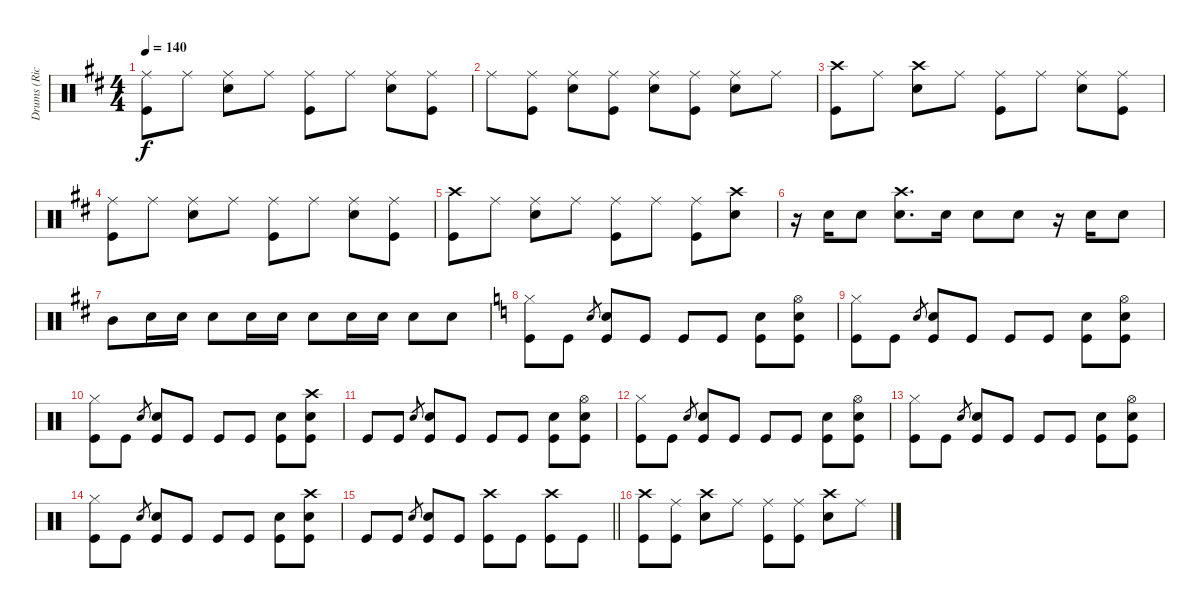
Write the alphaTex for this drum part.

\track ("Drums (Rick)" "Drums (Ric") {instrument percussion}
\staff {score}
\articulation defaults
\ts (4 4)
\tempo 140
\clef neutral
\ks bminor
("Ride (middle)" "Kick (hit)").8{dy f} "Ride (middle)".8 ("Ride (middle)" "Snare (hit) 2").8 "Ride (middle)".8 ("Ride (middle)" "Kick (hit)").8 "Ride (middle)".8 ("Ride (middle)" "Snare (hit) 2").8 ("Ride (middle)" "Kick (hit)").8 |
"Ride (middle)".8 ("Ride (middle)" "Kick (hit)").8 ("Ride (middle)" "Snare (hit) 2").8 ("Ride (middle)" "Kick (hit)").8 ("Ride (middle)" "Snare (hit) 2").8 ("Ride (middle)" "Kick (hit)").8 ("Ride (middle)" "Snare (hit) 2").8 "Ride (middle)".8 |
("Crash high (hit)" "Kick (hit)").8 "Ride (middle)".8 ("Crash high (hit)" "Snare (hit) 2").8 "Ride (middle)".8 ("Ride (middle)" "Kick (hit)").8 "Ride (middle)".8 ("Ride (middle)" "Snare (hit) 2").8 ("Ride (middle)" "Kick (hit)").8 |
("Ride (middle)" "Kick (hit)").8 "Ride (middle)".8 ("Ride (middle)" "Snare (hit) 2").8 "Ride (middle)".8 ("Ride (middle)" "Kick (hit)").8 "Ride (middle)".8 ("Ride (middle)" "Snare (hit) 2").8 ("Ride (middle)" "Kick (hit)").8 |
("Crash high (hit)" "Kick (hit)").8 "Ride (middle)".8 ("Ride (middle)" "Snare (hit) 2").8 "Ride (middle)".8 ("Ride (middle)" "Kick (hit)").8 "Ride (middle)".8 ("Ride (middle)" "Kick (hit)").8 ("Crash high (hit)" "Snare (hit) 2").8 |
r.16 "Snare (hit) 2".16 "Snare (hit) 2".8 ("Crash high (hit)" "Snare (hit) 2").8{d} "Snare (hit) 2".16 "Snare (hit) 2".8 "Snare (hit) 2".8 r.16 "Snare (hit) 2".16 "Snare (hit) 2".8 |
"Mid Tom (hit)".8 "Snare (hit) 2".16 "Snare (hit) 2".16 "Snare (hit) 2".8 "Snare (hit) 2".16 "Snare (hit) 2".16 "Snare (hit) 2".8 "Snare (hit) 2".16 "Snare (hit) 2".16 "Snare (hit) 2".8 "Snare (hit) 2".8 |
\ks aminor
("Hi-Hat (closed)" "Kick (hit)").8 "Kick (hit)".8 "Snare (hit) 2".8{gr} ("Snare (hit) 2" "Kick (hit)").8 "Kick (hit)".8 "Kick (hit)".8 "Kick (hit)".8 ("Snare (hit) 2" "Kick (hit)").8 ("Hi-Hat (open)" "Snare (hit) 2" "Kick (hit)").8 |
("Hi-Hat (closed)" "Kick (hit)").8 "Kick (hit)".8 "Snare (hit) 2".8{gr} ("Snare (hit) 2" "Kick (hit)").8 "Kick (hit)".8 "Kick (hit)".8 "Kick (hit)".8 ("Snare (hit) 2" "Kick (hit)").8 ("Hi-Hat (open)" "Snare (hit) 2" "Kick (hit)").8 |
("Hi-Hat (closed)" "Kick (hit)").8 "Kick (hit)".8 "Snare (hit) 2".8{gr} ("Snare (hit) 2" "Kick (hit)").8 "Kick (hit)".8 "Kick (hit)".8 "Kick (hit)".8 ("Snare (hit) 2" "Kick (hit)").8 ("Crash high (hit)" "Snare (hit) 2" "Kick (hit)").8 |
"Kick (hit)".8 "Kick (hit)".8 "Snare (hit) 2".8{gr} ("Snare (hit) 2" "Kick (hit)").8 "Kick (hit)".8 "Kick (hit)".8 "Kick (hit)".8 ("Snare (hit) 2" "Kick (hit)").8 ("Hi-Hat (open)" "Snare (hit) 2" "Kick (hit)").8 |
("Hi-Hat (closed)" "Kick (hit)").8 "Kick (hit)".8 "Snare (hit) 2".8{gr} ("Snare (hit) 2" "Kick (hit)").8 "Kick (hit)".8 "Kick (hit)".8 "Kick (hit)".8 ("Snare (hit) 2" "Kick (hit)").8 ("Hi-Hat (open)" "Snare (hit) 2" "Kick (hit)").8 |
("Hi-Hat (closed)" "Kick (hit)").8 "Kick (hit)".8 "Snare (hit) 2".8{gr} ("Snare (hit) 2" "Kick (hit)").8 "Kick (hit)".8 "Kick (hit)".8 "Kick (hit)".8 ("Snare (hit) 2" "Kick (hit)").8 ("Hi-Hat (open)" "Snare (hit) 2" "Kick (hit)").8 |
("Hi-Hat (closed)" "Kick (hit)").8 "Kick (hit)".8 "Snare (hit) 2".8{gr} ("Snare (hit) 2" "Kick (hit)").8 "Kick (hit)".8 "Kick (hit)".8 "Kick (hit)".8 ("Snare (hit) 2" "Kick (hit)").8 ("Crash high (hit)" "Snare (hit) 2" "Kick (hit)").8 |
\barLineRight lightlight "Kick (hit)".8 "Kick (hit)".8 "Snare (hit) 2".8{gr}
("Snare (hit) 2" "Kick (hit)").8 "Kick (hit)".8 ("Crash high (hit)" "Kick (hit)").8 "Kick (hit)".8 ("Crash high (hit)" "Kick (hit)").8 "Kick (hit)".8 |
("Crash high (hit)" "Kick (hit)").8 ("Ride (middle)" "Kick (hit)").8 ("Crash high (hit)" "Snare (hit) 2").8 "Ride (middle)".8 ("Ride (middle)" "Kick (hit)").8 ("Ride (middle)" "Kick (hit)").8 ("Crash high (hit)" "Snare (hit) 2").8 "Ride (middle)".8
